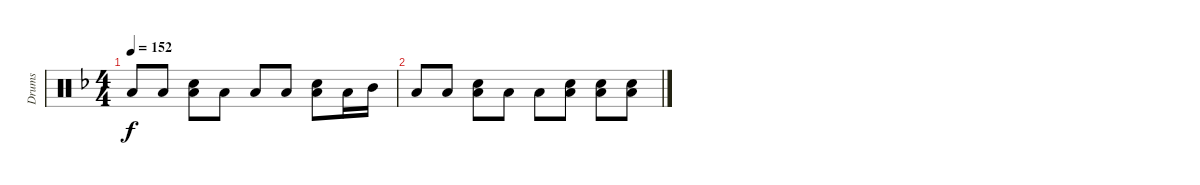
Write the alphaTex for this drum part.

\track ("Drums" "Drums") {instrument percussion}
\staff {score}
\articulation defaults
\ts (4 4)
\tempo 152
\clef neutral
\ks f "Low Tom (hit)".8{dy f} "Low Tom (hit)".8
("Low Tom (hit)" "Snare (hit) 2").8 "Low Tom (hit)".8 "Low Tom (hit)".8 "Low Tom (hit)".8 ("Snare (hit) 2" "Low Tom (hit)").8 "Low Tom (hit)".16 "Mid Tom (hit)".16 |
"Low Tom (hit)".8 "Low Tom (hit)".8 ("Snare (hit) 2" "Low Tom (hit)").8 "Low Tom (hit)".8 "Low Tom (hit)".8 ("Snare (hit) 2" "Low Tom (hit)").8 ("Snare (hit) 2" "Low Tom (hit)").8 ("Snare (hit) 2" "Low Tom (hit)").8
